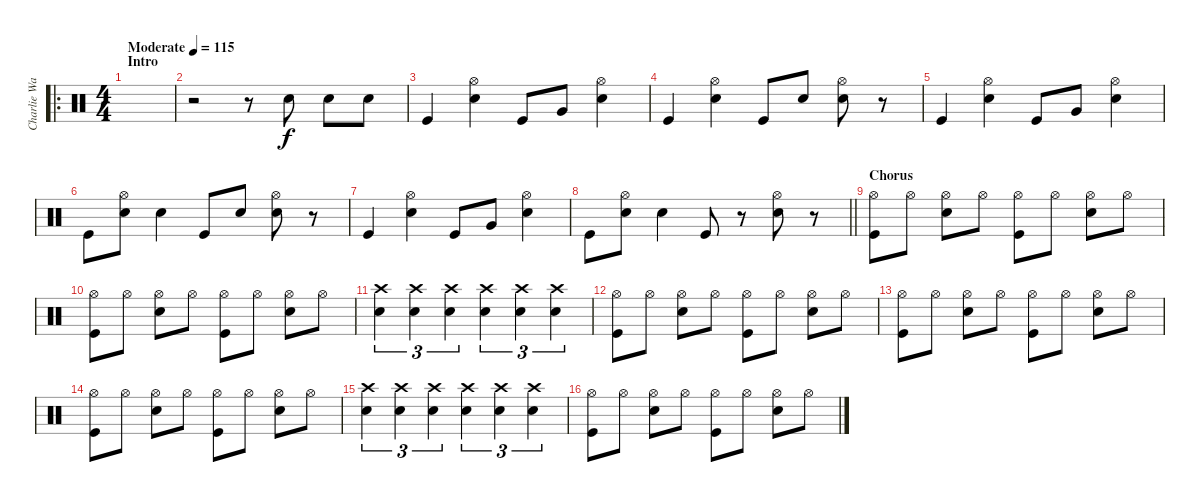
\track ("Charlie Watts" "Charlie Wa") {instrument percussion}
\staff {score}
\articulation defaults
\ro
\ts (4 4)
\section ("" "Intro")
\tempo (115 "Moderate")
\clef neutral
\ks c
|
r.2 r.8 "Snare (hit) 2".8 "Snare (hit) 2".8 "Snare (hit) 2".8 |
"Kick (hit)".4 ("Hi-Hat (open)" "Snare (hit) 2").4 "Kick (hit)".8 "Very Low Tom (hit)".8 ("Hi-Hat (open)" "Snare (hit) 2").4 |
"Kick (hit)".4 ("Hi-Hat (open)" "Snare (hit) 2").4 "Kick (hit)".8 "Snare (hit) 2".8 ("Hi-Hat (open)" "Snare (hit) 2").8 r.8 |
"Kick (hit)".4 ("Hi-Hat (open)" "Snare (hit) 2").4 "Kick (hit)".8 "Very Low Tom (hit)".8 ("Hi-Hat (open)" "Snare (hit) 2").4 |
"Kick (hit)".8 ("Hi-Hat (open)" "Snare (hit) 2").8 "Snare (hit) 2".4 "Kick (hit)".8 "Snare (hit) 2".8 ("Hi-Hat (open)" "Snare (hit) 2").8 r.8 |
"Kick (hit)".4 ("Hi-Hat (open)" "Snare (hit) 2").4 "Kick (hit)".8 "Very Low Tom (hit)".8 ("Hi-Hat (open)" "Snare (hit) 2").4 |
\barLineRight lightlight "Kick (hit)".8
("Hi-Hat (open)" "Snare (hit) 2").8 "Snare (hit) 2".4 "Kick (hit)".8 r.8 ("Hi-Hat (open)" "Snare (hit) 2").8 r.8 |
\section ("" "Chorus")
("Hi-Hat (open)" "Kick (hit)").8 "Hi-Hat (open)".8 ("Hi-Hat (open)" "Snare (hit) 2").8 "Hi-Hat (open)".8 ("Hi-Hat (open)" "Kick (hit)").8 "Hi-Hat (open)".8 ("Hi-Hat (open)" "Snare (hit) 2").8 "Hi-Hat (open)".8 |
("Hi-Hat (open)" "Kick (hit)").8 "Hi-Hat (open)".8 ("Hi-Hat (open)" "Snare (hit) 2").8 "Hi-Hat (open)".8 ("Hi-Hat (open)" "Kick (hit)").8 "Hi-Hat (open)".8 ("Hi-Hat (open)" "Snare (hit) 2").8 "Hi-Hat (open)".8 |
("Crash high (hit)" "Snare (hit) 2").4{tu (3 2)} ("Crash high (hit)" "Snare (hit) 2").4{tu (3 2)} ("Crash high (hit)" "Snare (hit) 2").4{tu (3 2)} ("Crash high (hit)" "Snare (hit) 2").4{tu (3 2)} ("Crash high (hit)" "Snare (hit) 2").4{tu (3 2)} ("Crash high (hit)" "Snare (hit) 2").4{tu (3 2)} |
("Hi-Hat (open)" "Kick (hit)").8 "Hi-Hat (open)".8 ("Hi-Hat (open)" "Snare (hit) 2").8 "Hi-Hat (open)".8 ("Hi-Hat (open)" "Kick (hit)").8 "Hi-Hat (open)".8 ("Hi-Hat (open)" "Snare (hit) 2").8 "Hi-Hat (open)".8 |
("Hi-Hat (open)" "Kick (hit)").8 "Hi-Hat (open)".8 ("Hi-Hat (open)" "Snare (hit) 2").8 "Hi-Hat (open)".8 ("Hi-Hat (open)" "Kick (hit)").8 "Hi-Hat (open)".8 ("Hi-Hat (open)" "Snare (hit) 2").8 "Hi-Hat (open)".8 |
("Hi-Hat (open)" "Kick (hit)").8 "Hi-Hat (open)".8 ("Hi-Hat (open)" "Snare (hit) 2").8 "Hi-Hat (open)".8 ("Hi-Hat (open)" "Kick (hit)").8 "Hi-Hat (open)".8 ("Hi-Hat (open)" "Snare (hit) 2").8 "Hi-Hat (open)".8 |
("Crash high (hit)" "Snare (hit) 2").4{tu (3 2)} ("Crash high (hit)" "Snare (hit) 2").4{tu (3 2)} ("Crash high (hit)" "Snare (hit) 2").4{tu (3 2)} ("Crash high (hit)" "Snare (hit) 2").4{tu (3 2)} ("Crash high (hit)" "Snare (hit) 2").4{tu (3 2)} ("Crash high (hit)" "Snare (hit) 2").4{tu (3 2)} |
("Hi-Hat (open)" "Kick (hit)").8 "Hi-Hat (open)".8 ("Hi-Hat (open)" "Snare (hit) 2").8 "Hi-Hat (open)".8 ("Hi-Hat (open)" "Kick (hit)").8 "Hi-Hat (open)".8 ("Hi-Hat (open)" "Snare (hit) 2").8 "Hi-Hat (open)".8
